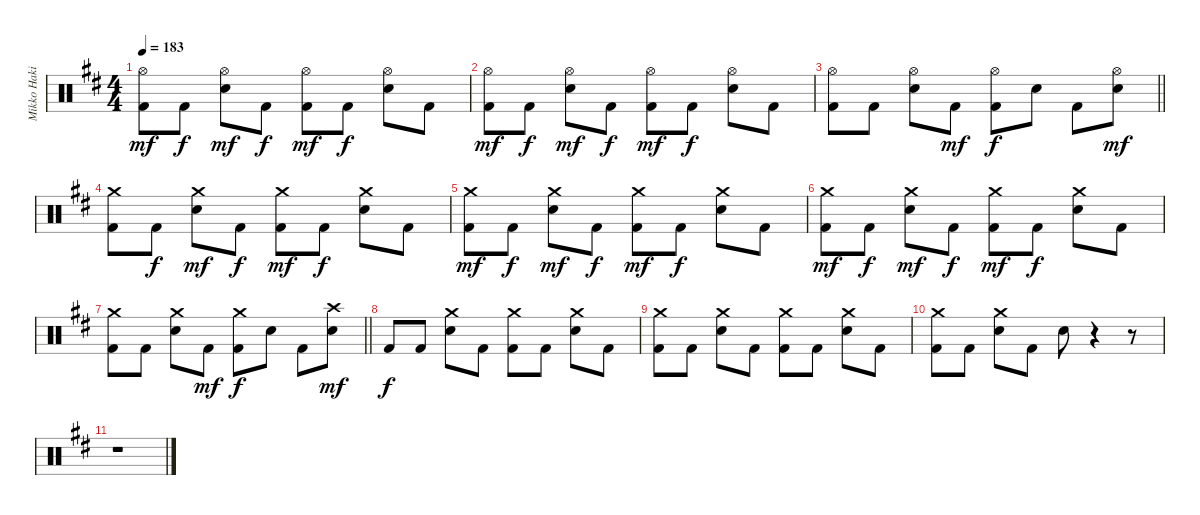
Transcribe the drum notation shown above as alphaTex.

\track ("Mikko Hakila - drums" "Mikko Haki") {instrument percussion}
\staff {score}
\articulation defaults
\ts (4 4)
\tempo 183
\clef neutral
\ks bminor
("Hi-Hat (open)" "Kick (hit) 2").8{dy mf} "Kick (hit) 2".8{dy f} ("Hi-Hat (open)" "Electric Snare (hit)").8{dy mf} "Kick (hit) 2".8{dy f} ("Hi-Hat (open)" "Kick (hit) 2").8{dy mf} "Kick (hit) 2".8{dy f} ("Hi-Hat (open)" "Electric Snare (hit)").8 "Kick (hit) 2".8 |
("Hi-Hat (open)" "Kick (hit) 2").8{dy mf} "Kick (hit) 2".8{dy f} ("Hi-Hat (open)" "Electric Snare (hit)").8{dy mf} "Kick (hit) 2".8{dy f} ("Hi-Hat (open)" "Kick (hit) 2").8{dy mf} "Kick (hit) 2".8{dy f} ("Hi-Hat (open)" "Electric Snare (hit)").8 "Kick (hit) 2".8 |
\barLineRight lightlight
("Hi-Hat (open)" "Kick (hit) 2").8 "Kick (hit) 2".8 ("Hi-Hat (open)" "Electric Snare (hit)").8 "Kick (hit) 2".8{dy mf} ("Hi-Hat (open)" "Kick (hit) 2").8{dy f} "Electric Snare (hit)".8 "Kick (hit) 2".8 ("Hi-Hat (open)" "Electric Snare (hit)").8{dy mf} |
("Crash medium (hit)" "Kick (hit) 2").8 "Kick (hit) 2".8{dy f} ("Crash medium (hit)" "Electric Snare (hit)").8{dy mf} "Kick (hit) 2".8{dy f} ("Crash medium (hit)" "Kick (hit) 2").8{dy mf} "Kick (hit) 2".8{dy f} ("Crash medium (hit)" "Electric Snare (hit)").8 "Kick (hit) 2".8 |
("Crash medium (hit)" "Kick (hit) 2").8{dy mf} "Kick (hit) 2".8{dy f} ("Crash medium (hit)" "Electric Snare (hit)").8{dy mf} "Kick (hit) 2".8{dy f} ("Crash medium (hit)" "Kick (hit) 2").8{dy mf} "Kick (hit) 2".8{dy f} ("Crash medium (hit)" "Electric Snare (hit)").8 "Kick (hit) 2".8 |
("Crash medium (hit)" "Kick (hit) 2").8{dy mf} "Kick (hit) 2".8{dy f} ("Crash medium (hit)" "Electric Snare (hit)").8{dy mf} "Kick (hit) 2".8{dy f} ("Crash medium (hit)" "Kick (hit) 2").8{dy mf} "Kick (hit) 2".8{dy f} ("Crash medium (hit)" "Electric Snare (hit)").8 "Kick (hit) 2".8 |
\barLineRight lightlight
("Crash medium (hit)" "Kick (hit) 2").8 "Kick (hit) 2".8 ("Crash medium (hit)" "Electric Snare (hit)").8 "Kick (hit) 2".8{dy mf} ("Crash medium (hit)" "Kick (hit) 2").8{dy f} "Electric Snare (hit)".8 "Kick (hit) 2".8 ("Crash high (hit)" "Electric Snare (hit)").8{dy mf} |
"Kick (hit) 2".8{dy f} "Kick (hit) 2".8 ("Crash medium (hit)" "Electric Snare (hit)").8 "Kick (hit) 2".8 ("Crash medium (hit)" "Kick (hit) 2").8 "Kick (hit) 2".8 ("Crash medium (hit)" "Electric Snare (hit)").8 "Kick (hit) 2".8 |
("Crash medium (hit)" "Kick (hit) 2").8 "Kick (hit) 2".8 ("Crash medium (hit)" "Electric Snare (hit)").8 "Kick (hit) 2".8 ("Crash medium (hit)" "Kick (hit) 2").8 "Kick (hit) 2".8 ("Crash medium (hit)" "Electric Snare (hit)").8 "Kick (hit) 2".8 |
("Crash medium (hit)" "Kick (hit) 2").8 "Kick (hit) 2".8 ("Crash medium (hit)" "Electric Snare (hit)").8 "Kick (hit) 2".8 "Electric Snare (hit)".8 r.4 r.8 |
r.1
